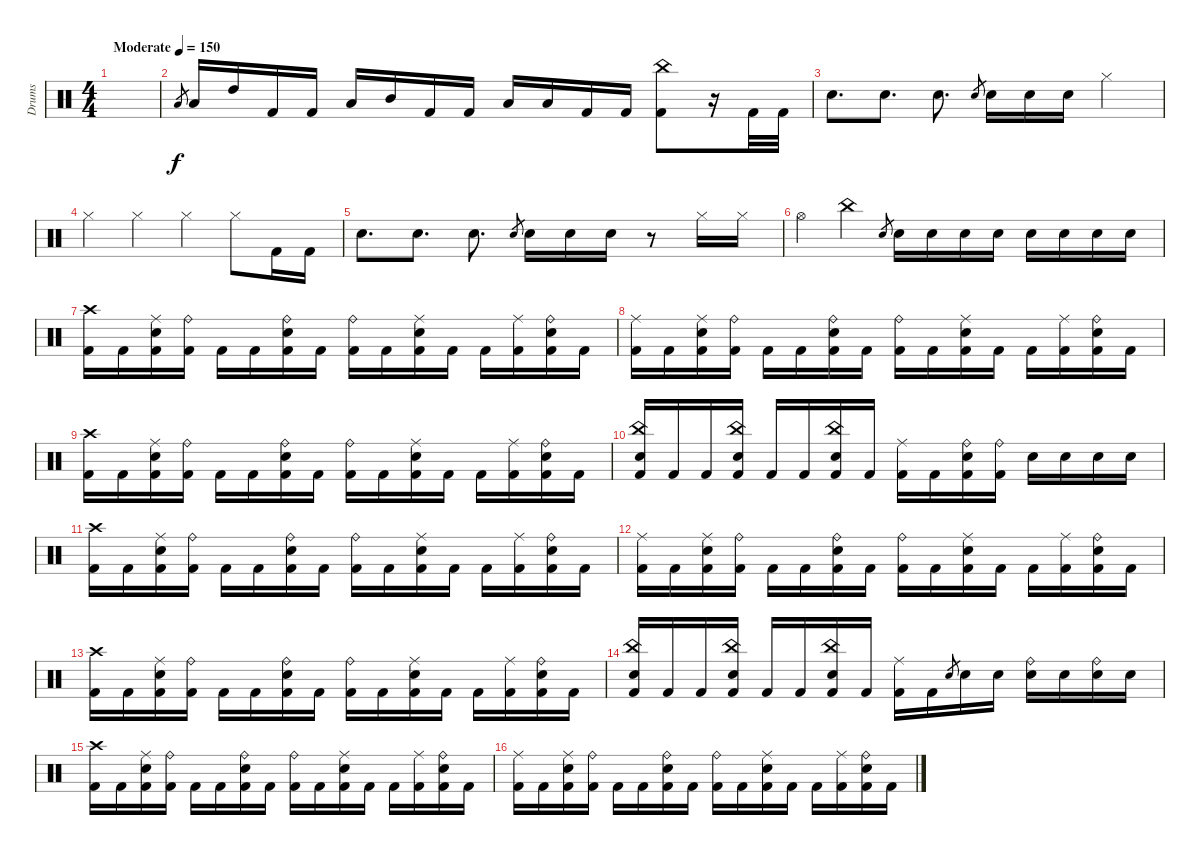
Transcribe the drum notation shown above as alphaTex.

\track ("Drums" "Drums") {instrument percussion}
\staff {score}
\articulation defaults
\ts (4 4)
\tempo (150 "Moderate")
\clef neutral
\ks c
|
"Low Tom (hit)".8{gr} "Low Tom (hit)".16 "High Tom (hit)".16 "Kick (hit) 2".16 "Kick (hit) 2".16 "Low Tom (hit)".16 "Mid Tom (hit)".16 "Kick (hit) 2".16 "Kick (hit) 2".16 "Low Tom (hit)".16 "Low Tom (hit)".16 "Kick (hit) 2".16 "Kick (hit) 2".16 ("China (hit)" "Kick (hit) 2").8 r.16 "Kick (hit) 2".32 "Kick (hit) 2".32 |
"Snare (hit) 2".8{d} "Snare (hit) 2".8{d} "Snare (hit) 2".8{d} "Snare (hit) 2".8{gr} "Snare (hit) 2".16 "Snare (hit) 2".16 "Snare (hit) 2".16 "Hi-Hat (closed)".4 |
"Hi-Hat (closed)".4 "Hi-Hat (closed)".4 "Hi-Hat (closed)".4 "Hi-Hat (closed)".8 "Kick (hit) 2".16 "Kick (hit) 2".16 |
"Snare (hit) 2".8{d} "Snare (hit) 2".8{d} "Snare (hit) 2".8{d} "Snare (hit) 2".8{gr} "Snare (hit) 2".16 "Snare (hit) 2".16 "Snare (hit) 2".16 r.8 "Hi-Hat (closed)".16 "Hi-Hat (closed)".16 |
"Hi-Hat (open)".4 "China (hit)".4 "Snare (hit) 2".8{gr} "Snare (hit) 2".16 "Snare (hit) 2".16 "Snare (hit) 2".16 "Snare (hit) 2".16 "Snare (hit) 2".16 "Snare (hit) 2".16 "Snare (hit) 2".16 "Snare (hit) 2".16 |
("Crash high (hit)" "Kick (hit) 2").16 "Kick (hit) 2".16 ("Ride (middle)" "Snare (hit) 2" "Kick (hit) 2").16 ("Ride (bell)" "Kick (hit) 2").16 "Kick (hit) 2".16 "Kick (hit) 2".16 ("Ride (bell)" "Snare (hit) 2" "Kick (hit) 2").16 "Kick (hit) 2".16 ("Ride (bell)" "Kick (hit) 2").16 "Kick (hit) 2".16 ("Ride (middle)" "Snare (hit) 2" "Kick (hit) 2").16 "Kick (hit) 2".16 "Kick (hit) 2".16 ("Ride (middle)" "Kick (hit) 2").16 ("Ride (bell)" "Snare (hit) 2" "Kick (hit) 2").16 "Kick (hit) 2".16 |
("Ride (middle)" "Kick (hit) 2").16 "Kick (hit) 2".16 ("Ride (middle)" "Snare (hit) 2" "Kick (hit) 2").16 ("Ride (bell)" "Kick (hit) 2").16 "Kick (hit) 2".16 "Kick (hit) 2".16 ("Ride (bell)" "Snare (hit) 2" "Kick (hit) 2").16 "Kick (hit) 2".16 ("Ride (bell)" "Kick (hit) 2").16 "Kick (hit) 2".16 ("Ride (middle)" "Snare (hit) 2" "Kick (hit) 2").16 "Kick (hit) 2".16 "Kick (hit) 2".16 ("Ride (middle)" "Kick (hit) 2").16 ("Ride (bell)" "Snare (hit) 2" "Kick (hit) 2").16 "Kick (hit) 2".16 |
("Crash high (hit)" "Kick (hit) 2").16 "Kick (hit) 2".16 ("Ride (middle)" "Snare (hit) 2" "Kick (hit) 2").16 ("Ride (bell)" "Kick (hit) 2").16 "Kick (hit) 2".16 "Kick (hit) 2".16 ("Ride (bell)" "Snare (hit) 2" "Kick (hit) 2").16 "Kick (hit) 2".16 ("Ride (bell)" "Kick (hit) 2").16 "Kick (hit) 2".16 ("Ride (middle)" "Snare (hit) 2" "Kick (hit) 2").16 "Kick (hit) 2".16 "Kick (hit) 2".16 ("Ride (middle)" "Kick (hit) 2").16 ("Ride (bell)" "Snare (hit) 2" "Kick (hit) 2").16 "Kick (hit) 2".16 |
("China (hit)" "Snare (hit) 2" "Kick (hit) 2").16 "Kick (hit) 2".16 "Kick (hit) 2".16 ("China (hit)" "Snare (hit) 2" "Kick (hit) 2").16 "Kick (hit) 2".16 "Kick (hit) 2".16 ("China (hit)" "Snare (hit) 2" "Kick (hit) 2").16 "Kick (hit) 2".16 ("Ride (middle)" "Kick (hit) 2").16 "Kick (hit) 2".16 ("Ride (bell)" "Snare (hit) 2" "Kick (hit) 2").16 ("Ride (bell)" "Kick (hit) 2").16 "Snare (hit) 2".16 "Snare (hit) 2".16 "Snare (hit) 2".16 "Snare (hit) 2".16 |
("Crash high (hit)" "Kick (hit) 2").16 "Kick (hit) 2".16 ("Ride (middle)" "Snare (hit) 2" "Kick (hit) 2").16 ("Ride (bell)" "Kick (hit) 2").16 "Kick (hit) 2".16 "Kick (hit) 2".16 ("Ride (bell)" "Snare (hit) 2" "Kick (hit) 2").16 "Kick (hit) 2".16 ("Ride (bell)" "Kick (hit) 2").16 "Kick (hit) 2".16 ("Ride (middle)" "Snare (hit) 2" "Kick (hit) 2").16 "Kick (hit) 2".16 "Kick (hit) 2".16 ("Ride (middle)" "Kick (hit) 2").16 ("Ride (bell)" "Snare (hit) 2" "Kick (hit) 2").16 "Kick (hit) 2".16 |
("Ride (middle)" "Kick (hit) 2").16 "Kick (hit) 2".16 ("Ride (middle)" "Snare (hit) 2" "Kick (hit) 2").16 ("Ride (bell)" "Kick (hit) 2").16 "Kick (hit) 2".16 "Kick (hit) 2".16 ("Ride (bell)" "Snare (hit) 2" "Kick (hit) 2").16 "Kick (hit) 2".16 ("Ride (bell)" "Kick (hit) 2").16 "Kick (hit) 2".16 ("Ride (middle)" "Snare (hit) 2" "Kick (hit) 2").16 "Kick (hit) 2".16 "Kick (hit) 2".16 ("Ride (middle)" "Kick (hit) 2").16 ("Ride (bell)" "Snare (hit) 2" "Kick (hit) 2").16 "Kick (hit) 2".16 |
("Crash high (hit)" "Kick (hit) 2").16 "Kick (hit) 2".16 ("Ride (middle)" "Snare (hit) 2" "Kick (hit) 2").16 ("Ride (bell)" "Kick (hit) 2").16 "Kick (hit) 2".16 "Kick (hit) 2".16 ("Ride (bell)" "Snare (hit) 2" "Kick (hit) 2").16 "Kick (hit) 2".16 ("Ride (bell)" "Kick (hit) 2").16 "Kick (hit) 2".16 ("Ride (middle)" "Snare (hit) 2" "Kick (hit) 2").16 "Kick (hit) 2".16 "Kick (hit) 2".16 ("Ride (middle)" "Kick (hit) 2").16 ("Ride (bell)" "Snare (hit) 2" "Kick (hit) 2").16 "Kick (hit) 2".16 |
("China (hit)" "Snare (hit) 2" "Kick (hit) 2").16 "Kick (hit) 2".16 "Kick (hit) 2".16 ("China (hit)" "Snare (hit) 2" "Kick (hit) 2").16 "Kick (hit) 2".16 "Kick (hit) 2".16 ("China (hit)" "Snare (hit) 2" "Kick (hit) 2").16 "Kick (hit) 2".16 ("Ride (middle)" "Kick (hit) 2").16 "Kick (hit) 2".16 "Snare (hit) 2".8{gr} "Snare (hit) 2".16 "Snare (hit) 2".16 ("Ride (bell)" "Snare (hit) 2").16 "Snare (hit) 2".16 ("Ride (bell)" "Snare (hit) 2").16 "Snare (hit) 2".16 |
("Crash high (hit)" "Kick (hit) 2").16 "Kick (hit) 2".16 ("Ride (middle)" "Snare (hit) 2" "Kick (hit) 2").16 ("Ride (bell)" "Kick (hit) 2").16 "Kick (hit) 2".16 "Kick (hit) 2".16 ("Ride (bell)" "Snare (hit) 2" "Kick (hit) 2").16 "Kick (hit) 2".16 ("Ride (bell)" "Kick (hit) 2").16 "Kick (hit) 2".16 ("Ride (middle)" "Snare (hit) 2" "Kick (hit) 2").16 "Kick (hit) 2".16 "Kick (hit) 2".16 ("Ride (middle)" "Kick (hit) 2").16 ("Ride (bell)" "Snare (hit) 2" "Kick (hit) 2").16 "Kick (hit) 2".16 |
("Ride (middle)" "Kick (hit) 2").16 "Kick (hit) 2".16 ("Ride (middle)" "Snare (hit) 2" "Kick (hit) 2").16 ("Ride (bell)" "Kick (hit) 2").16 "Kick (hit) 2".16 "Kick (hit) 2".16 ("Ride (bell)" "Snare (hit) 2" "Kick (hit) 2").16 "Kick (hit) 2".16 ("Ride (bell)" "Kick (hit) 2").16 "Kick (hit) 2".16 ("Ride (middle)" "Snare (hit) 2" "Kick (hit) 2").16 "Kick (hit) 2".16 "Kick (hit) 2".16 ("Ride (middle)" "Kick (hit) 2").16 ("Ride (bell)" "Snare (hit) 2" "Kick (hit) 2").16 "Kick (hit) 2".16
